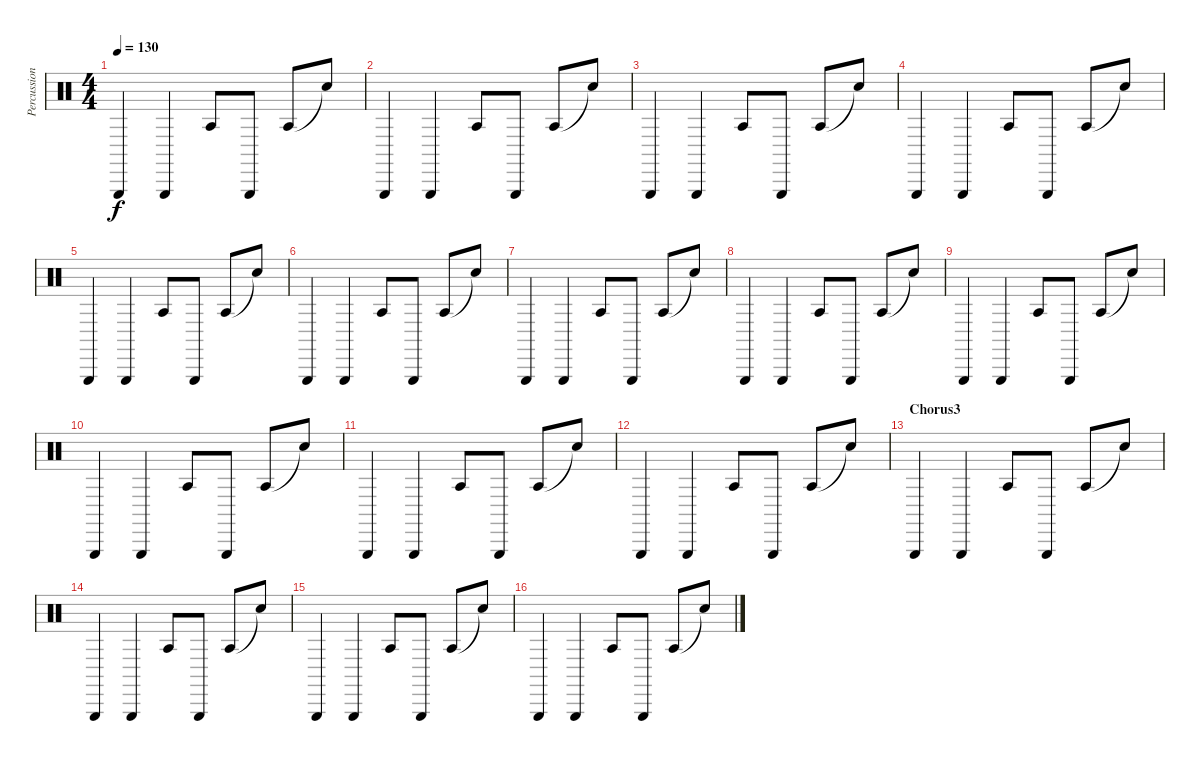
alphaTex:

\track ("Percussion" "Percussion") {instrument percussion}
\staff {score}
\articulation defaults
\ts (4 4)
\tempo 130
\clef neutral
\ks c "Triangle (hit)".4{dy f} "Triangle (hit)".4 "Agogo tow (hit)".8 "Triangle (hit)".8 "Agogo tow (hit)".8 "Snare (hit)"{t}.8
|
"Triangle (hit)".4 "Triangle (hit)".4 "Agogo tow (hit)".8 "Triangle (hit)".8 "Agogo tow (hit)".8 "Snare (hit)"{t}.8 |
"Triangle (hit)".4 "Triangle (hit)".4 "Agogo tow (hit)".8 "Triangle (hit)".8 "Agogo tow (hit)".8 "Snare (hit)"{t}.8 |
"Triangle (hit)".4 "Triangle (hit)".4 "Agogo tow (hit)".8 "Triangle (hit)".8 "Agogo tow (hit)".8 "Snare (hit)"{t}.8 |
"Triangle (hit)".4 "Triangle (hit)".4 "Agogo tow (hit)".8 "Triangle (hit)".8 "Agogo tow (hit)".8 "Snare (hit)"{t}.8 |
"Triangle (hit)".4 "Triangle (hit)".4 "Agogo tow (hit)".8 "Triangle (hit)".8 "Agogo tow (hit)".8 "Snare (hit)"{t}.8 |
"Triangle (hit)".4 "Triangle (hit)".4 "Agogo tow (hit)".8 "Triangle (hit)".8 "Agogo tow (hit)".8 "Snare (hit)"{t}.8 |
"Triangle (hit)".4 "Triangle (hit)".4 "Agogo tow (hit)".8 "Triangle (hit)".8 "Agogo tow (hit)".8 "Snare (hit)"{t}.8 |
"Triangle (hit)".4 "Triangle (hit)".4 "Agogo tow (hit)".8 "Triangle (hit)".8 "Agogo tow (hit)".8 "Snare (hit)"{t}.8 |
"Triangle (hit)".4 "Triangle (hit)".4 "Agogo tow (hit)".8 "Triangle (hit)".8 "Agogo tow (hit)".8 "Snare (hit)"{t}.8 |
"Triangle (hit)".4 "Triangle (hit)".4 "Agogo tow (hit)".8 "Triangle (hit)".8 "Agogo tow (hit)".8 "Snare (hit)"{t}.8 |
"Triangle (hit)".4 "Triangle (hit)".4 "Agogo tow (hit)".8 "Triangle (hit)".8 "Agogo tow (hit)".8 "Snare (hit)"{t}.8 |
\section ("" "Chorus3")
"Triangle (hit)".4 "Triangle (hit)".4 "Agogo tow (hit)".8 "Triangle (hit)".8 "Agogo tow (hit)".8 "Snare (hit)"{t}.8 |
"Triangle (hit)".4 "Triangle (hit)".4 "Agogo tow (hit)".8 "Triangle (hit)".8 "Agogo tow (hit)".8 "Snare (hit)"{t}.8 |
"Triangle (hit)".4 "Triangle (hit)".4 "Agogo tow (hit)".8 "Triangle (hit)".8 "Agogo tow (hit)".8 "Snare (hit)"{t}.8 |
"Triangle (hit)".4 "Triangle (hit)".4 "Agogo tow (hit)".8 "Triangle (hit)".8 "Agogo tow (hit)".8 "Snare (hit)"{t}.8
